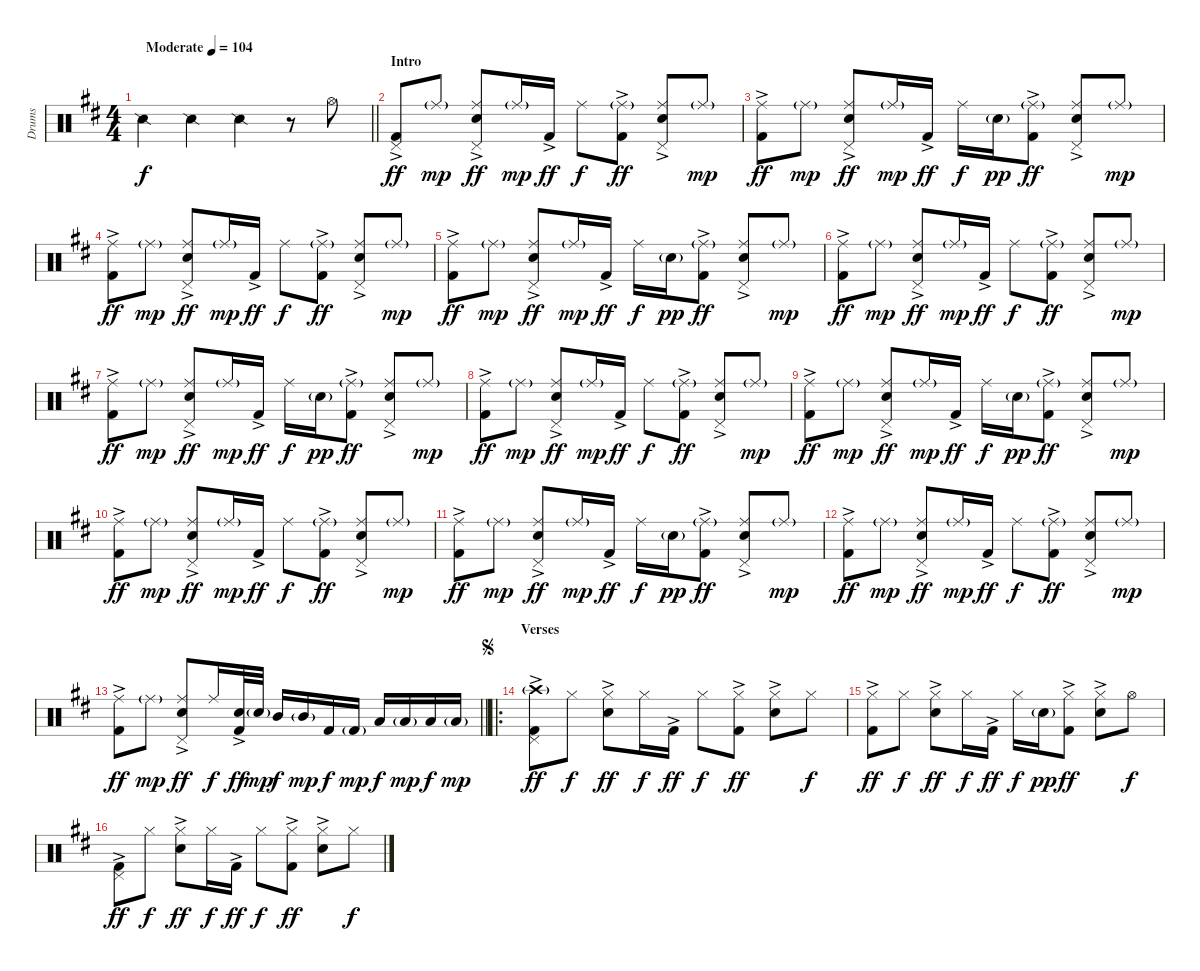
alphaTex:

\track ("Drums" "Drums") {instrument percussion}
\staff {score}
\articulation defaults
\ts (4 4)
\tempo (104 "Moderate")
\clef neutral
\barLineRight lightlight
\ks d "Snare (side stick) 2".4{dy f} "Snare (side stick) 2".4 "Snare (side stick) 2".4
r.8 "Hi-Hat (open)".8 |
\section ("" "Intro")
("Pedal Hi-Hat (hit)" "Kick (hit) 2"{ac}).8{dy ff} "Ride (middle)"{g}.8{dy mp} ("Ride (middle)" "Pedal Hi-Hat (hit)" "Snare (hit) 2"{ac}).8{dy ff} "Ride (middle)"{g}.16{dy mp} "Kick (hit) 2"{ac}.16{dy ff} "Ride (middle)".8{dy f} ("Ride (middle)"{g} "Kick (hit) 2"{ac}).8{dy ff} ("Ride (middle)" "Pedal Hi-Hat (hit)" "Snare (hit) 2"{ac}).8 "Ride (middle)"{g}.8{dy mp} |
("Ride (middle)" "Kick (hit) 2"{ac}).8{dy ff} "Ride (middle)"{g}.8{dy mp} ("Ride (middle)" "Pedal Hi-Hat (hit)" "Snare (hit) 2"{ac}).8{dy ff} "Ride (middle)"{g}.16{dy mp} "Kick (hit) 2"{ac}.16{dy ff} "Ride (middle)".16{dy f} "Snare (hit) 2"{g}.16{dy pp} ("Ride (middle)"{g} "Kick (hit) 2"{ac}).8{dy ff} ("Ride (middle)" "Pedal Hi-Hat (hit)" "Snare (hit) 2"{ac}).8 "Ride (middle)"{g}.8{dy mp} |
("Ride (middle)" "Kick (hit) 2"{ac}).8{dy ff} "Ride (middle)"{g}.8{dy mp} ("Ride (middle)" "Pedal Hi-Hat (hit)" "Snare (hit) 2"{ac}).8{dy ff} "Ride (middle)"{g}.16{dy mp} "Kick (hit) 2"{ac}.16{dy ff} "Ride (middle)".8{dy f} ("Ride (middle)"{g} "Kick (hit) 2"{ac}).8{dy ff} ("Ride (middle)" "Pedal Hi-Hat (hit)" "Snare (hit) 2"{ac}).8 "Ride (middle)"{g}.8{dy mp} |
("Ride (middle)" "Kick (hit) 2"{ac}).8{dy ff} "Ride (middle)"{g}.8{dy mp} ("Ride (middle)" "Pedal Hi-Hat (hit)" "Snare (hit) 2"{ac}).8{dy ff} "Ride (middle)"{g}.16{dy mp} "Kick (hit) 2"{ac}.16{dy ff} "Ride (middle)".16{dy f} "Snare (hit) 2"{g}.16{dy pp} ("Ride (middle)"{g} "Kick (hit) 2"{ac}).8{dy ff} ("Ride (middle)" "Pedal Hi-Hat (hit)" "Snare (hit) 2"{ac}).8 "Ride (middle)"{g}.8{dy mp} |
("Ride (middle)" "Kick (hit) 2"{ac}).8{dy ff} "Ride (middle)"{g}.8{dy mp} ("Ride (middle)" "Pedal Hi-Hat (hit)" "Snare (hit) 2"{ac}).8{dy ff} "Ride (middle)"{g}.16{dy mp} "Kick (hit) 2"{ac}.16{dy ff} "Ride (middle)".8{dy f} ("Ride (middle)"{g} "Kick (hit) 2"{ac}).8{dy ff} ("Ride (middle)" "Pedal Hi-Hat (hit)" "Snare (hit) 2"{ac}).8 "Ride (middle)"{g}.8{dy mp} |
("Ride (middle)" "Kick (hit) 2"{ac}).8{dy ff} "Ride (middle)"{g}.8{dy mp} ("Ride (middle)" "Pedal Hi-Hat (hit)" "Snare (hit) 2"{ac}).8{dy ff} "Ride (middle)"{g}.16{dy mp} "Kick (hit) 2"{ac}.16{dy ff} "Ride (middle)".16{dy f} "Snare (hit) 2"{g}.16{dy pp} ("Ride (middle)"{g} "Kick (hit) 2"{ac}).8{dy ff} ("Ride (middle)" "Pedal Hi-Hat (hit)" "Snare (hit) 2"{ac}).8 "Ride (middle)"{g}.8{dy mp} |
("Ride (middle)" "Kick (hit) 2"{ac}).8{dy ff} "Ride (middle)"{g}.8{dy mp} ("Ride (middle)" "Pedal Hi-Hat (hit)" "Snare (hit) 2"{ac}).8{dy ff} "Ride (middle)"{g}.16{dy mp} "Kick (hit) 2"{ac}.16{dy ff} "Ride (middle)".8{dy f} ("Ride (middle)"{g} "Kick (hit) 2"{ac}).8{dy ff} ("Ride (middle)" "Pedal Hi-Hat (hit)" "Snare (hit) 2"{ac}).8 "Ride (middle)"{g}.8{dy mp} |
("Ride (middle)" "Kick (hit) 2"{ac}).8{dy ff} "Ride (middle)"{g}.8{dy mp} ("Ride (middle)" "Pedal Hi-Hat (hit)" "Snare (hit) 2"{ac}).8{dy ff} "Ride (middle)"{g}.16{dy mp} "Kick (hit) 2"{ac}.16{dy ff} "Ride (middle)".16{dy f} "Snare (hit) 2"{g}.16{dy pp} ("Ride (middle)"{g} "Kick (hit) 2"{ac}).8{dy ff} ("Ride (middle)" "Pedal Hi-Hat (hit)" "Snare (hit) 2"{ac}).8 "Ride (middle)"{g}.8{dy mp} |
("Ride (middle)" "Kick (hit) 2"{ac}).8{dy ff} "Ride (middle)"{g}.8{dy mp} ("Ride (middle)" "Pedal Hi-Hat (hit)" "Snare (hit) 2"{ac}).8{dy ff} "Ride (middle)"{g}.16{dy mp} "Kick (hit) 2"{ac}.16{dy ff} "Ride (middle)".8{dy f} ("Ride (middle)"{g} "Kick (hit) 2"{ac}).8{dy ff} ("Ride (middle)" "Pedal Hi-Hat (hit)" "Snare (hit) 2"{ac}).8 "Ride (middle)"{g}.8{dy mp} |
("Ride (middle)" "Kick (hit) 2"{ac}).8{dy ff} "Ride (middle)"{g}.8{dy mp} ("Ride (middle)" "Pedal Hi-Hat (hit)" "Snare (hit) 2"{ac}).8{dy ff} "Ride (middle)"{g}.16{dy mp} "Kick (hit) 2"{ac}.16{dy ff} "Ride (middle)".16{dy f} "Snare (hit) 2"{g}.16{dy pp} ("Ride (middle)"{g} "Kick (hit) 2"{ac}).8{dy ff} ("Ride (middle)" "Pedal Hi-Hat (hit)" "Snare (hit) 2"{ac}).8 "Ride (middle)"{g}.8{dy mp} |
("Ride (middle)" "Kick (hit) 2"{ac}).8{dy ff} "Ride (middle)"{g}.8{dy mp} ("Ride (middle)" "Pedal Hi-Hat (hit)" "Snare (hit) 2"{ac}).8{dy ff} "Ride (middle)"{g}.16{dy mp} "Kick (hit) 2"{ac}.16{dy ff} "Ride (middle)".8{dy f} ("Ride (middle)"{g} "Kick (hit) 2"{ac}).8{dy ff} ("Ride (middle)" "Pedal Hi-Hat (hit)" "Snare (hit) 2"{ac}).8 "Ride (middle)"{g}.8{dy mp} |
\barLineRight lightlight
("Ride (middle)" "Kick (hit) 2"{ac}).8{dy ff} "Ride (middle)"{g}.8{dy mp} ("Ride (middle)" "Pedal Hi-Hat (hit)" "Snare (hit) 2"{ac}).8{dy ff} "Ride (middle)".16{dy f} ("Snare (hit) 2" "Kick (hit) 2"{ac}).32{dy ff} "Snare (hit) 2"{g}.32{dy mp} "Mid Tom (hit)".16{dy f} "Mid Tom (hit)"{g}.16{dy mp} "Kick (hit) 2".16{dy f} "Kick (hit) 2"{g}.16{dy mp} "Low Tom (hit)".16{dy f} "Low Tom (hit)"{g}.16{dy mp} "Low Floor Tom (hit)".16{dy f} "Low Floor Tom (hit)"{g}.16{dy mp} |
\ro
\section ("" "Verses")
\jump segno
("Pedal Hi-Hat (hit)" "Crash high (hit)"{g} "Kick (hit) 2"{ac}).8{dy ff} "Hi-Hat (closed)".8{dy f} ("Hi-Hat (closed)" "Snare (hit) 2"{ac}).8{dy ff} "Hi-Hat (closed)".16{dy f} "Kick (hit) 2"{ac}.16{dy ff} "Hi-Hat (closed)".8{dy f} ("Hi-Hat (closed)" "Kick (hit) 2"{ac}).8{dy ff} ("Hi-Hat (closed)" "Snare (hit) 2"{ac}).8 "Hi-Hat (closed)".8{dy f} |
("Hi-Hat (closed)" "Kick (hit) 2"{ac}).8{dy ff} "Hi-Hat (closed)".8{dy f} ("Hi-Hat (closed)" "Snare (hit) 2"{ac}).8{dy ff} "Hi-Hat (closed)".16{dy f} "Kick (hit) 2"{ac}.16{dy ff} "Hi-Hat (closed)".16{dy f} "Snare (hit) 2"{g}.16{dy pp} ("Hi-Hat (closed)" "Kick (hit) 2"{ac}).8{dy ff} ("Hi-Hat (closed)" "Snare (hit) 2"{ac}).8 "Hi-Hat (open)".8{dy f} |
("Pedal Hi-Hat (hit)" "Kick (hit) 2"{ac}).8{dy ff} "Hi-Hat (closed)".8{dy f} ("Hi-Hat (closed)" "Snare (hit) 2"{ac}).8{dy ff} "Hi-Hat (closed)".16{dy f} "Kick (hit) 2"{ac}.16{dy ff} "Hi-Hat (closed)".8{dy f} ("Hi-Hat (closed)" "Kick (hit) 2"{ac}).8{dy ff} ("Hi-Hat (closed)" "Snare (hit) 2"{ac}).8 "Hi-Hat (closed)".8{dy f}
